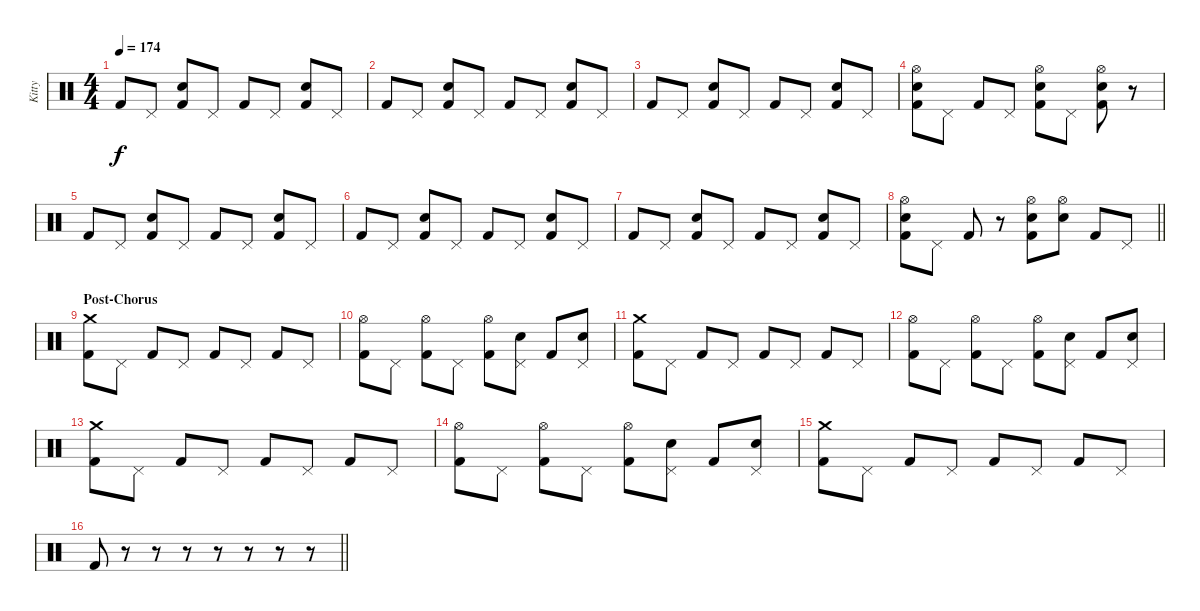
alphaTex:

\track ("Kitty" "Kitty") {instrument percussion}
\staff {score}
\articulation defaults
\ts (4 4)
\tempo 174
\clef neutral
\ks c "Kick (hit) 2".8{dy f} "Pedal Hi-Hat (hit)".8
("Snare (hit) 2" "Kick (hit) 2").8 "Pedal Hi-Hat (hit)".8 "Kick (hit) 2".8 "Pedal Hi-Hat (hit)".8 ("Snare (hit) 2" "Kick (hit) 2").8 "Pedal Hi-Hat (hit)".8 |
"Kick (hit) 2".8 "Pedal Hi-Hat (hit)".8 ("Snare (hit) 2" "Kick (hit) 2").8 "Pedal Hi-Hat (hit)".8 "Kick (hit) 2".8 "Pedal Hi-Hat (hit)".8 ("Snare (hit) 2" "Kick (hit) 2").8 "Pedal Hi-Hat (hit)".8 |
"Kick (hit) 2".8 "Pedal Hi-Hat (hit)".8 ("Snare (hit) 2" "Kick (hit) 2").8 "Pedal Hi-Hat (hit)".8 "Kick (hit) 2".8 "Pedal Hi-Hat (hit)".8 ("Snare (hit) 2" "Kick (hit) 2").8 "Pedal Hi-Hat (hit)".8 |
("Hi-Hat (open)" "Snare (hit) 2" "Kick (hit) 2").8 "Pedal Hi-Hat (hit)".8 "Kick (hit) 2".8 "Pedal Hi-Hat (hit)".8 ("Hi-Hat (open)" "Snare (hit) 2" "Kick (hit) 2").8 "Pedal Hi-Hat (hit)".8 ("Hi-Hat (open)" "Snare (hit) 2" "Kick (hit) 2").8 r.8 |
"Kick (hit) 2".8 "Pedal Hi-Hat (hit)".8 ("Snare (hit) 2" "Kick (hit) 2").8 "Pedal Hi-Hat (hit)".8 "Kick (hit) 2".8 "Pedal Hi-Hat (hit)".8 ("Snare (hit) 2" "Kick (hit) 2").8 "Pedal Hi-Hat (hit)".8 |
"Kick (hit) 2".8 "Pedal Hi-Hat (hit)".8 ("Snare (hit) 2" "Kick (hit) 2").8 "Pedal Hi-Hat (hit)".8 "Kick (hit) 2".8 "Pedal Hi-Hat (hit)".8 ("Snare (hit) 2" "Kick (hit) 2").8 "Pedal Hi-Hat (hit)".8 |
"Kick (hit) 2".8 "Pedal Hi-Hat (hit)".8 ("Snare (hit) 2" "Kick (hit) 2").8 "Pedal Hi-Hat (hit)".8 "Kick (hit) 2".8 "Pedal Hi-Hat (hit)".8 ("Snare (hit) 2" "Kick (hit) 2").8 "Pedal Hi-Hat (hit)".8 |
\barLineRight lightlight
("Hi-Hat (open)" "Snare (hit) 2" "Kick (hit) 2").8 "Pedal Hi-Hat (hit)".8 "Kick (hit) 2".8 r.8 ("Hi-Hat (open)" "Snare (hit) 2" "Kick (hit) 2").8 ("Hi-Hat (open)" "Snare (hit) 2").8 "Kick (hit) 2".8 "Pedal Hi-Hat (hit)".8 |
\section ("" "Post-Chorus")
("Crash medium (hit)" "Kick (hit) 2").8 "Pedal Hi-Hat (hit)".8 "Kick (hit) 2".8 "Pedal Hi-Hat (hit)".8 "Kick (hit) 2".8 "Pedal Hi-Hat (hit)".8 "Kick (hit) 2".8 "Pedal Hi-Hat (hit)".8 |
("Hi-Hat (open)" "Kick (hit) 2").8 "Pedal Hi-Hat (hit)".8 ("Hi-Hat (open)" "Kick (hit) 2").8 "Pedal Hi-Hat (hit)".8 ("Hi-Hat (open)" "Kick (hit) 2").8 ("Snare (hit) 2" "Pedal Hi-Hat (hit)").8 "Kick (hit) 2".8 ("Snare (hit) 2" "Pedal Hi-Hat (hit)").8 |
("Crash medium (hit)" "Kick (hit) 2").8 "Pedal Hi-Hat (hit)".8 "Kick (hit) 2".8 "Pedal Hi-Hat (hit)".8 "Kick (hit) 2".8 "Pedal Hi-Hat (hit)".8 "Kick (hit) 2".8 "Pedal Hi-Hat (hit)".8 |
("Hi-Hat (open)" "Kick (hit) 2").8 "Pedal Hi-Hat (hit)".8 ("Hi-Hat (open)" "Kick (hit) 2").8 "Pedal Hi-Hat (hit)".8 ("Hi-Hat (open)" "Kick (hit) 2").8 ("Snare (hit) 2" "Pedal Hi-Hat (hit)").8 "Kick (hit) 2".8 ("Snare (hit) 2" "Pedal Hi-Hat (hit)").8 |
("Crash medium (hit)" "Kick (hit) 2").8 "Pedal Hi-Hat (hit)".8 "Kick (hit) 2".8 "Pedal Hi-Hat (hit)".8 "Kick (hit) 2".8 "Pedal Hi-Hat (hit)".8 "Kick (hit) 2".8 "Pedal Hi-Hat (hit)".8 |
("Hi-Hat (open)" "Kick (hit) 2").8 "Pedal Hi-Hat (hit)".8 ("Hi-Hat (open)" "Kick (hit) 2").8 "Pedal Hi-Hat (hit)".8 ("Hi-Hat (open)" "Kick (hit) 2").8 ("Snare (hit) 2" "Pedal Hi-Hat (hit)").8 "Kick (hit) 2".8 ("Snare (hit) 2" "Pedal Hi-Hat (hit)").8 |
("Crash medium (hit)" "Kick (hit) 2").8 "Pedal Hi-Hat (hit)".8 "Kick (hit) 2".8 "Pedal Hi-Hat (hit)".8 "Kick (hit) 2".8 "Pedal Hi-Hat (hit)".8 "Kick (hit) 2".8 "Pedal Hi-Hat (hit)".8 |
\barLineRight lightlight "Kick (hit) 2".8
r.8 r.8 r.8 r.8 r.8 r.8 r.8
